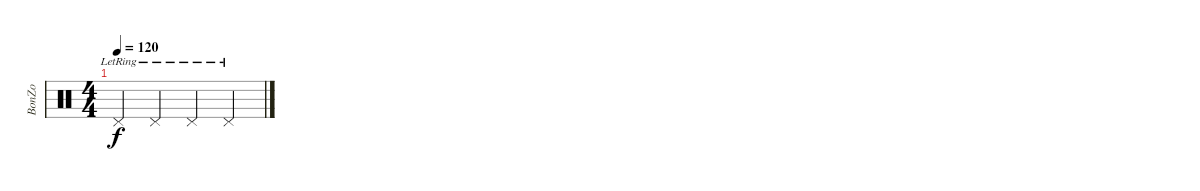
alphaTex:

\track ("BonZo" "BonZo") {instrument percussion}
\staff {score}
\articulation defaults
\ts (4 4)
\tempo 120
\clef neutral
\ks c "Pedal Hi-Hat (hit)"{lr}.4{dy f} "Pedal Hi-Hat (hit)"{lr}.4 "Pedal Hi-Hat (hit)"{lr}.4 "Pedal Hi-Hat (hit)"{lr}.4
